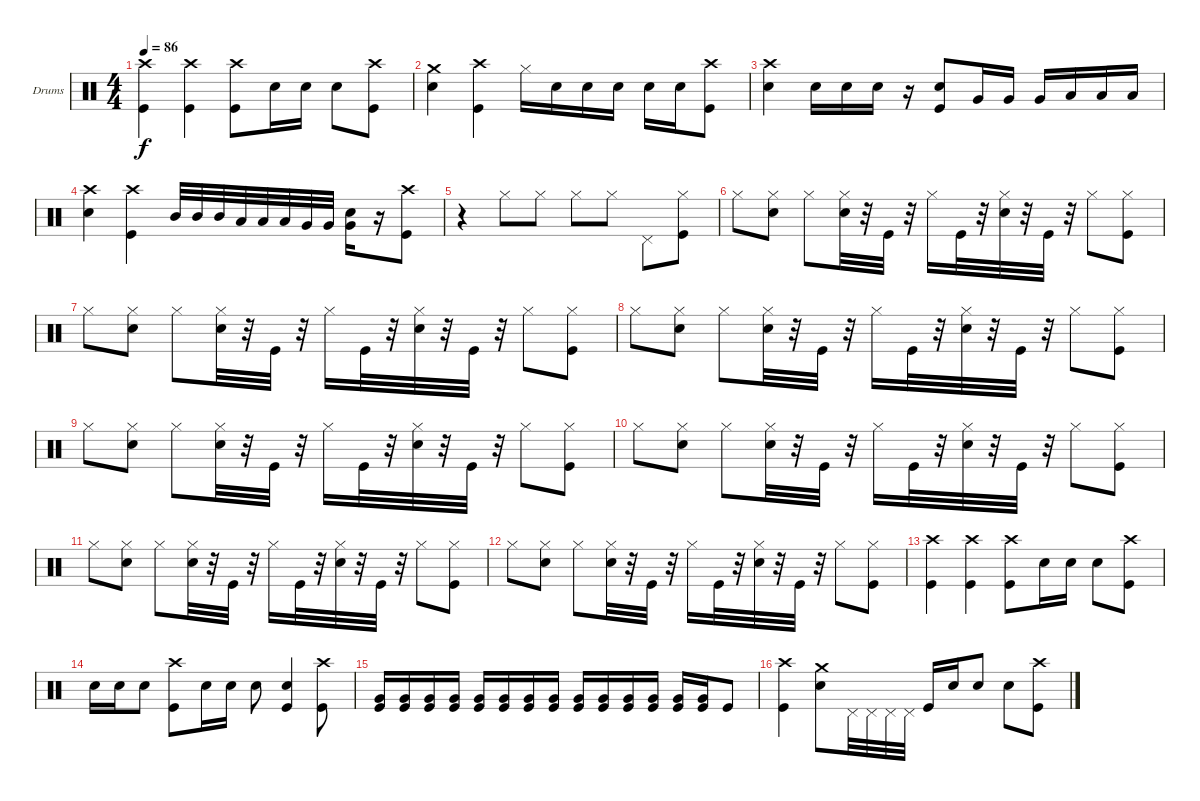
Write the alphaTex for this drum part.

\bracketExtendMode groupsimilarinstruments
\firstSystemTrackNameOrientation horizontal
\otherSystemsTrackNameOrientation horizontal
\track ("Drumkit" "Drums") {instrument percussion}
\staff {score}
\articulation defaults
\ts (4 4)
\tempo 86
\clef neutral
\ks c
("Crash high (hit)" "Kick (hit)").4{dy f} ("Crash high (hit)" "Kick (hit)").4 ("Crash high (hit)" "Kick (hit)").8 "Snare (hit) 2".16 "Snare (hit) 2".16 "Snare (hit) 2".8 ("Crash high (hit)" "Kick (hit)").8 |
("Crash medium (hit)" "Snare (hit) 2").4 ("Crash high (hit)" "Kick (hit)").4 "Hi-Hat (closed)".16 "Snare (hit) 2".16 "Snare (hit) 2".16 "Snare (hit) 2".16 "Snare (hit) 2".16 "Snare (hit) 2".16 ("Crash high (hit)" "Kick (hit)").8 |
("Crash high (hit)" "Snare (hit) 2").4 "Snare (hit) 2".16 "Snare (hit) 2".16 "Snare (hit) 2".16 r.16 ("Kick (hit)" "Snare (hit) 2").8 "Very Low Tom (hit)".16 "Very Low Tom (hit)".16 "Very Low Tom (hit)".16 "Low Tom (hit)".16 "Low Tom (hit)".16 "Low Tom (hit)".16 |
("Crash high (hit)" "Snare (hit) 2").4 ("Crash high (hit)" "Kick (hit)").4 "Mid Tom (hit)".32 "Mid Tom (hit)".32 "Mid Tom (hit)".32 "Low Tom (hit)".32 "Low Tom (hit)".32 "Low Tom (hit)".32 "Very Low Tom (hit)".32 "Very Low Tom (hit)".32 ("Snare (hit) 2" "Very Low Tom (hit)").16 r.16 ("Crash high (hit)" "Kick (hit)").8 |
r.4 "Hi-Hat (closed)".8 "Hi-Hat (closed)".8 "Hi-Hat (closed)".8 "Hi-Hat (closed)".8 "Pedal Hi-Hat (hit)".8 ("Hi-Hat (closed)" "Kick (hit)").8 |
"Hi-Hat (closed)".8 ("Hi-Hat (closed)" "Snare (hit) 2").8 "Hi-Hat (closed)".8 ("Hi-Hat (closed)" "Snare (hit) 2").32 r.32 "Kick (hit)".32 r.32 "Hi-Hat (closed)".16 "Kick (hit)".32 r.32 ("Hi-Hat (closed)" "Snare (hit) 2").32 r.32 "Kick (hit)".32 r.32 "Hi-Hat (closed)".8 ("Hi-Hat (closed)" "Kick (hit)").8 |
"Hi-Hat (closed)".8 ("Hi-Hat (closed)" "Snare (hit) 2").8 "Hi-Hat (closed)".8 ("Hi-Hat (closed)" "Snare (hit) 2").32 r.32 "Kick (hit)".32 r.32 "Hi-Hat (closed)".16 "Kick (hit)".32 r.32 ("Hi-Hat (closed)" "Snare (hit) 2").32 r.32 "Kick (hit)".32 r.32 "Hi-Hat (closed)".8 ("Hi-Hat (closed)" "Kick (hit)").8 |
"Hi-Hat (closed)".8 ("Hi-Hat (closed)" "Snare (hit) 2").8 "Hi-Hat (closed)".8 ("Hi-Hat (closed)" "Snare (hit) 2").32 r.32 "Kick (hit)".32 r.32 "Hi-Hat (closed)".16 "Kick (hit)".32 r.32 ("Hi-Hat (closed)" "Snare (hit) 2").32 r.32 "Kick (hit)".32 r.32 "Hi-Hat (closed)".8 ("Hi-Hat (closed)" "Kick (hit)").8 |
"Hi-Hat (closed)".8 ("Hi-Hat (closed)" "Snare (hit) 2").8 "Hi-Hat (closed)".8 ("Hi-Hat (closed)" "Snare (hit) 2").32 r.32 "Kick (hit)".32 r.32 "Hi-Hat (closed)".16 "Kick (hit)".32 r.32 ("Hi-Hat (closed)" "Snare (hit) 2").32 r.32 "Kick (hit)".32 r.32 "Hi-Hat (closed)".8 ("Hi-Hat (closed)" "Kick (hit)").8 |
"Hi-Hat (closed)".8 ("Hi-Hat (closed)" "Snare (hit) 2").8 "Hi-Hat (closed)".8 ("Hi-Hat (closed)" "Snare (hit) 2").32 r.32 "Kick (hit)".32 r.32 "Hi-Hat (closed)".16 "Kick (hit)".32 r.32 ("Hi-Hat (closed)" "Snare (hit) 2").32 r.32 "Kick (hit)".32 r.32 "Hi-Hat (closed)".8 ("Hi-Hat (closed)" "Kick (hit)").8 |
"Hi-Hat (closed)".8 ("Hi-Hat (closed)" "Snare (hit) 2").8 "Hi-Hat (closed)".8 ("Hi-Hat (closed)" "Snare (hit) 2").32 r.32 "Kick (hit)".32 r.32 "Hi-Hat (closed)".16 "Kick (hit)".32 r.32 ("Hi-Hat (closed)" "Snare (hit) 2").32 r.32 "Kick (hit)".32 r.32 "Hi-Hat (closed)".8 ("Hi-Hat (closed)" "Kick (hit)").8 |
"Hi-Hat (closed)".8 ("Hi-Hat (closed)" "Snare (hit) 2").8 "Hi-Hat (closed)".8 ("Hi-Hat (closed)" "Snare (hit) 2").32 r.32 "Kick (hit)".32 r.32 "Hi-Hat (closed)".16 "Kick (hit)".32 r.32 ("Hi-Hat (closed)" "Snare (hit) 2").32 r.32 "Kick (hit)".32 r.32 "Hi-Hat (closed)".8 ("Hi-Hat (closed)" "Kick (hit)").8 |
("Crash high (hit)" "Kick (hit)").4 ("Crash high (hit)" "Kick (hit)").4 ("Crash high (hit)" "Kick (hit)").8 "Snare (hit) 2".16 "Snare (hit) 2".16 "Snare (hit) 2".8 ("Crash high (hit)" "Kick (hit)").8 |
"Snare (hit) 2".16 "Snare (hit) 2".16 "Snare (hit) 2".8 ("Crash high (hit)" "Kick (hit)").8 "Snare (hit) 2".16 "Snare (hit) 2".16 "Snare (hit) 2".8 ("Snare (hit) 2" "Kick (hit)").4 ("Crash high (hit)" "Kick (hit)").8 |
("Kick (hit)" "Very Low Tom (hit)").16 ("Kick (hit)" "Very Low Tom (hit)").16 ("Kick (hit)" "Very Low Tom (hit)").16 ("Kick (hit)" "Very Low Tom (hit)").16 ("Kick (hit)" "Very Low Tom (hit)").16 ("Kick (hit)" "Very Low Tom (hit)").16 ("Kick (hit)" "Very Low Tom (hit)").16 ("Kick (hit)" "Very Low Tom (hit)").16 ("Kick (hit)" "Very Low Tom (hit)").16 ("Kick (hit)" "Very Low Tom (hit)").16 ("Kick (hit)" "Very Low Tom (hit)").16 ("Kick (hit)" "Very Low Tom (hit)").16 ("Kick (hit)" "Very Low Tom (hit)").16 ("Kick (hit)" "Very Low Tom (hit)").16 "Kick (hit)".8 |
("Crash high (hit)" "Kick (hit)").4 ("Crash medium (hit)" "Snare (hit) 2").8 "Pedal Hi-Hat (hit)".32 "Pedal Hi-Hat (hit)".32 "Pedal Hi-Hat (hit)".32 "Pedal Hi-Hat (hit)".32 "Kick (hit)".16 "Snare (hit) 2".16 "Snare (hit) 2".8 "Snare (hit) 2".8 ("Crash high (hit)" "Kick (hit)").8
